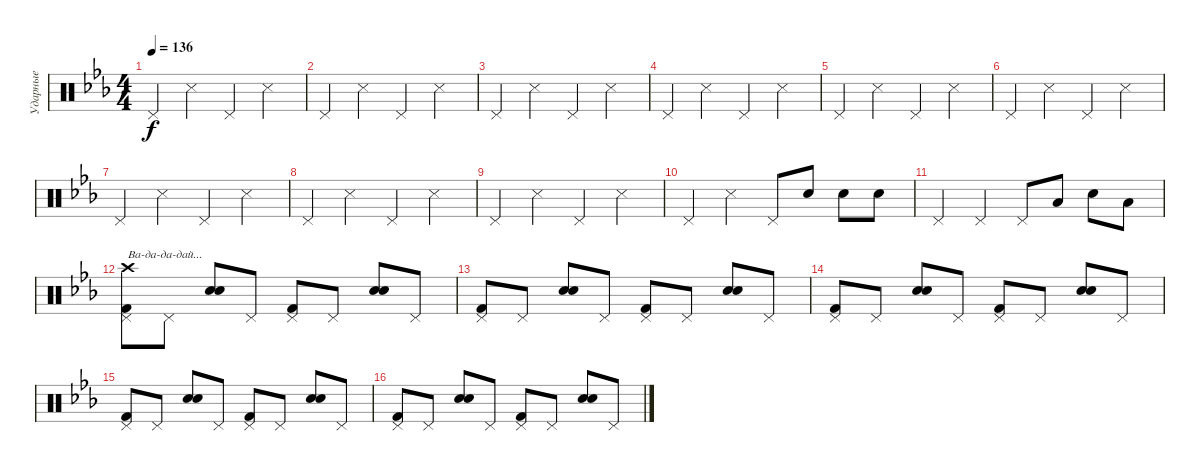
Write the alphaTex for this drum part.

\track ("Ударные" "Ударные") {instrument percussion}
\staff {score}
\articulation defaults
\ts (4 4)
\tempo 136
\clef neutral
\ks cminor "Pedal Hi-Hat (hit)".4{dy f} "Snare (side stick) 3".4 "Pedal Hi-Hat (hit)".4 "Snare (side stick) 3".4
|
"Pedal Hi-Hat (hit)".4 "Snare (side stick) 3".4 "Pedal Hi-Hat (hit)".4 "Snare (side stick) 3".4 |
"Pedal Hi-Hat (hit)".4 "Snare (side stick) 3".4 "Pedal Hi-Hat (hit)".4 "Snare (side stick) 3".4 |
"Pedal Hi-Hat (hit)".4 "Snare (side stick) 3".4 "Pedal Hi-Hat (hit)".4 "Snare (side stick) 3".4 |
"Pedal Hi-Hat (hit)".4 "Snare (side stick) 3".4 "Pedal Hi-Hat (hit)".4 "Snare (side stick) 3".4 |
"Pedal Hi-Hat (hit)".4 "Snare (side stick) 3".4 "Pedal Hi-Hat (hit)".4 "Snare (side stick) 3".4 |
"Pedal Hi-Hat (hit)".4 "Snare (side stick) 3".4 "Pedal Hi-Hat (hit)".4 "Snare (side stick) 3".4 |
"Pedal Hi-Hat (hit)".4 "Snare (side stick) 3".4 "Pedal Hi-Hat (hit)".4 "Snare (side stick) 3".4 |
"Pedal Hi-Hat (hit)".4 "Snare (side stick) 3".4 "Pedal Hi-Hat (hit)".4 "Snare (side stick) 3".4 |
"Pedal Hi-Hat (hit)".4 "Snare (side stick) 3".4 "Pedal Hi-Hat (hit)".8 "Snare (hit) 2".8 "Snare (hit) 2".8 "Snare (hit) 2".8 |
"Pedal Hi-Hat (hit)".4 "Pedal Hi-Hat (hit)".4 "Pedal Hi-Hat (hit)".8 "Low Floor Tom (hit)".8 "Snare (hit) 2".8 "Low Floor Tom (hit)".8 |
("Pedal Hi-Hat (hit)" "Kick (hit) 2" "Crash high (hit)").8{txt "Ва-да-да-дай..."} "Pedal Hi-Hat (hit)".8 ("Snare (hit) 2" "Snare (hit) 2").8 "Pedal Hi-Hat (hit)".8 ("Pedal Hi-Hat (hit)" "Kick (hit) 2").8 "Pedal Hi-Hat (hit)".8 ("Snare (hit) 2" "Snare (hit) 2").8 "Pedal Hi-Hat (hit)".8 |
("Pedal Hi-Hat (hit)" "Kick (hit) 2").8 "Pedal Hi-Hat (hit)".8 ("Snare (hit) 2" "Snare (hit) 2").8 "Pedal Hi-Hat (hit)".8 ("Pedal Hi-Hat (hit)" "Kick (hit) 2").8 "Pedal Hi-Hat (hit)".8 ("Snare (hit) 2" "Snare (hit) 2").8 "Pedal Hi-Hat (hit)".8 |
("Pedal Hi-Hat (hit)" "Kick (hit) 2").8 "Pedal Hi-Hat (hit)".8 ("Snare (hit) 2" "Snare (hit) 2").8 "Pedal Hi-Hat (hit)".8 ("Pedal Hi-Hat (hit)" "Kick (hit) 2").8 "Pedal Hi-Hat (hit)".8 ("Snare (hit) 2" "Snare (hit) 2").8 "Pedal Hi-Hat (hit)".8 |
("Pedal Hi-Hat (hit)" "Kick (hit) 2").8 "Pedal Hi-Hat (hit)".8 ("Snare (hit) 2" "Snare (hit) 2").8 "Pedal Hi-Hat (hit)".8 ("Pedal Hi-Hat (hit)" "Kick (hit) 2").8 "Pedal Hi-Hat (hit)".8 ("Snare (hit) 2" "Snare (hit) 2").8 "Pedal Hi-Hat (hit)".8 |
("Pedal Hi-Hat (hit)" "Kick (hit) 2").8 "Pedal Hi-Hat (hit)".8 ("Snare (hit) 2" "Snare (hit) 2").8 "Pedal Hi-Hat (hit)".8 ("Pedal Hi-Hat (hit)" "Kick (hit) 2").8 "Pedal Hi-Hat (hit)".8 ("Snare (hit) 2" "Snare (hit) 2").8 "Pedal Hi-Hat (hit)".8
